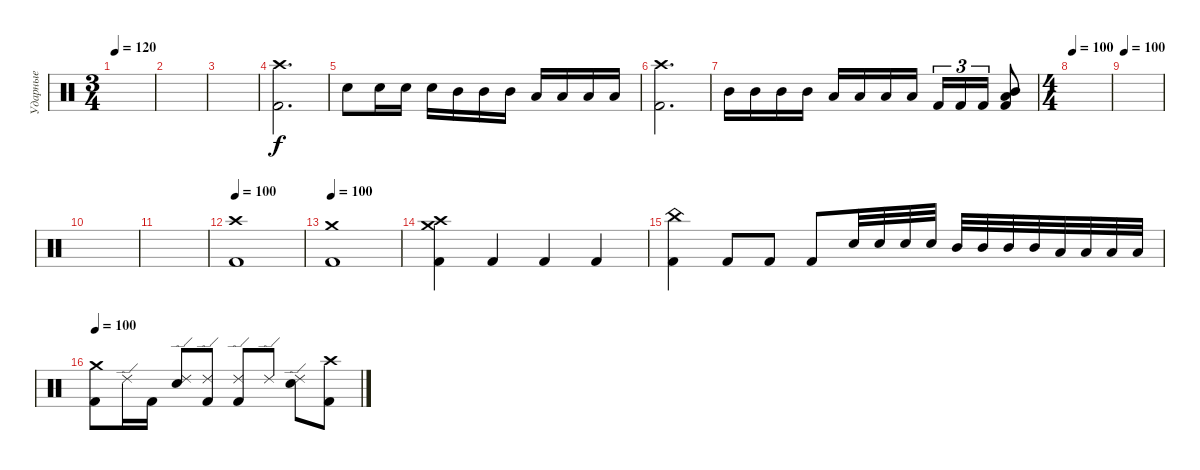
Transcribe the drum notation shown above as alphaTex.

\track ("Ударные" "Ударные") {instrument percussion}
\staff {score}
\articulation defaults
\ts (3 4)
\tempo 120
\clef neutral
\ks c
|
|
|
("Kick (hit) 2" "Crash high (hit)").2{d} |
"Electric Snare (hit)".8 "Electric Snare (hit)".16 "Electric Snare (hit)".16 "Electric Snare (hit)".16 "Mid Tom (hit)".16 "Mid Tom (hit)".16 "Mid Tom (hit)".16 "Low Tom (hit)".16 "Low Tom (hit)".16 "Low Tom (hit)".16 "Low Tom (hit)".16 |
("Kick (hit) 2" "Crash high (hit)").2{d} |
"Mid Tom (hit)".16 "Mid Tom (hit)".16 "Mid Tom (hit)".16 "Mid Tom (hit)".16 "Low Tom (hit)".16 "Low Tom (hit)".16 "Low Tom (hit)".16 "Low Tom (hit)".16 "Kick (hit) 2".16{tu (3 2)} "Kick (hit) 2".16{tu (3 2)} "Kick (hit) 2".16{tu (3 2)} ("Kick (hit) 2" "Mid Tom (hit)" "Low Tom (hit)").8 |
\ts (4 4)
\tempo 100
|
\tempo 100
|
|
|
\tempo 100
("Kick (hit) 2" "Crash high (hit)").1 |
\tempo 100
("Kick (hit) 2" "Crash medium (hit)").1 |
("Kick (hit) 2" "Crash high (hit)" "Crash medium (hit)").4 "Kick (hit) 2".4 "Kick (hit) 2".4 "Kick (hit) 2".4 |
("Kick (hit) 2" "China (hit)").4 "Kick (hit) 2".8 "Kick (hit) 2".8 "Kick (hit) 2".8 "Electric Snare (hit)".32 "Electric Snare (hit)".32 "Electric Snare (hit)".32 "Electric Snare (hit)".32 "Mid Tom (hit)".32 "Mid Tom (hit)".32 "Mid Tom (hit)".32 "Mid Tom (hit)".32 "Low Tom (hit)".32 "Low Tom (hit)".32 "Low Tom (hit)".32 "Low Tom (hit)".32 |
\tempo 100
("Kick (hit) 2" "Crash medium (hit)").8 "Ride (edge) 2".16 "Kick (hit) 2".16 ("Electric Snare (hit)" "Ride (edge) 2").8 ("Kick (hit) 2" "Ride (edge) 2").8 ("Kick (hit) 2" "Ride (edge) 2").8 "Ride (edge) 2".8 ("Electric Snare (hit)" "Ride (edge) 2").8 ("Kick (hit) 2" "Crash high (hit)").8
